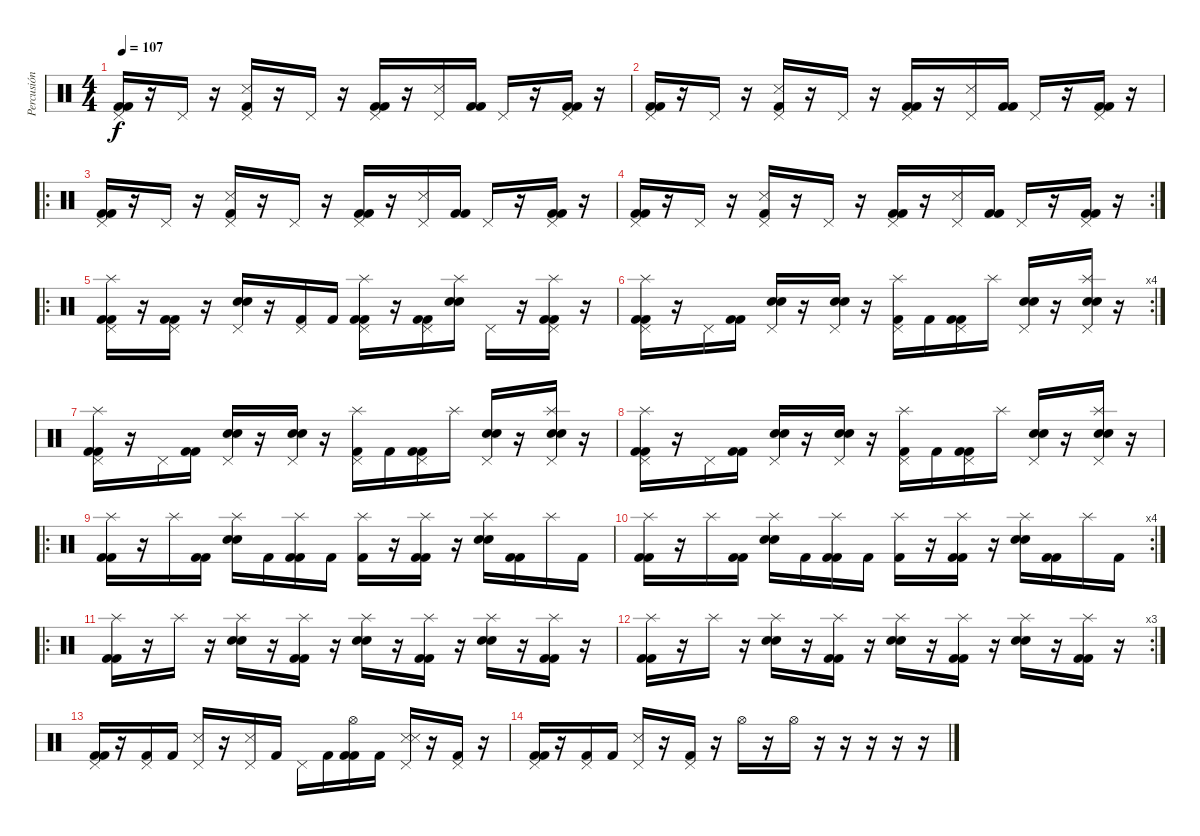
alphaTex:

\track ("Percusión" "Percusión") {instrument percussion}
\staff {score}
\articulation defaults
\ts (4 4)
\tempo 107
\clef neutral
\ks c
("Pedal Hi-Hat (hit)" "Kick (hit) 2" "Kick (hit) 2").16{dy f} r.16 "Pedal Hi-Hat (hit)".16 r.16 ("Pedal Hi-Hat (hit)" "Snare (side stick) 3" "Kick (hit) 2").16 r.16 "Pedal Hi-Hat (hit)".16 r.16 ("Pedal Hi-Hat (hit)" "Kick (hit) 2" "Kick (hit) 2").16 r.16 ("Pedal Hi-Hat (hit)" "Snare (side stick) 3").16 ("Kick (hit) 2" "Kick (hit) 2").16 "Pedal Hi-Hat (hit)".16 r.16 ("Pedal Hi-Hat (hit)" "Kick (hit) 2" "Kick (hit) 2").16 r.16 |
("Pedal Hi-Hat (hit)" "Kick (hit) 2" "Kick (hit) 2").16 r.16 "Pedal Hi-Hat (hit)".16 r.16 ("Pedal Hi-Hat (hit)" "Snare (side stick) 3" "Kick (hit) 2").16 r.16 "Pedal Hi-Hat (hit)".16 r.16 ("Pedal Hi-Hat (hit)" "Kick (hit) 2" "Kick (hit) 2").16 r.16 ("Pedal Hi-Hat (hit)" "Snare (side stick) 3").16 ("Kick (hit) 2" "Kick (hit) 2").16 "Pedal Hi-Hat (hit)".16 r.16 ("Pedal Hi-Hat (hit)" "Kick (hit) 2" "Kick (hit) 2").16 r.16 |
\ro
("Pedal Hi-Hat (hit)" "Kick (hit) 2" "Kick (hit) 2").16 r.16 "Pedal Hi-Hat (hit)".16 r.16 ("Pedal Hi-Hat (hit)" "Snare (side stick) 3" "Kick (hit) 2").16 r.16 "Pedal Hi-Hat (hit)".16 r.16 ("Pedal Hi-Hat (hit)" "Kick (hit) 2" "Kick (hit) 2").16 r.16 ("Pedal Hi-Hat (hit)" "Snare (side stick) 3").16 ("Kick (hit) 2" "Kick (hit) 2").16 "Pedal Hi-Hat (hit)".16 r.16 ("Pedal Hi-Hat (hit)" "Kick (hit) 2" "Kick (hit) 2").16 r.16 |
\rc 2
("Pedal Hi-Hat (hit)" "Kick (hit) 2" "Kick (hit) 2").16 r.16 "Pedal Hi-Hat (hit)".16 r.16 ("Pedal Hi-Hat (hit)" "Snare (side stick) 3" "Kick (hit) 2").16 r.16 "Pedal Hi-Hat (hit)".16 r.16 ("Pedal Hi-Hat (hit)" "Kick (hit) 2" "Kick (hit) 2").16 r.16 ("Pedal Hi-Hat (hit)" "Snare (side stick) 3").16 ("Kick (hit) 2" "Kick (hit) 2").16 "Pedal Hi-Hat (hit)".16 r.16 ("Pedal Hi-Hat (hit)" "Kick (hit) 2" "Kick (hit) 2").16 r.16 |
\ro
("Pedal Hi-Hat (hit)" "Splash (hit)" "Kick (hit) 2" "Kick (hit) 2").16 r.16 ("Pedal Hi-Hat (hit)" "Kick (hit) 2" "Kick (hit) 2").16 r.16 ("Pedal Hi-Hat (hit)" "Electric Snare (hit)" "Electric Snare (hit)").16 r.16 ("Pedal Hi-Hat (hit)" "Kick (hit) 2").16 "Kick (hit) 2".16 ("Pedal Hi-Hat (hit)" "Splash (hit)" "Kick (hit) 2" "Kick (hit) 2").16 r.16 ("Pedal Hi-Hat (hit)" "Kick (hit) 2" "Kick (hit) 2").16 ("Splash (hit)" "Electric Snare (hit)" "Electric Snare (hit)").16 "Pedal Hi-Hat (hit)".16 r.16 ("Pedal Hi-Hat (hit)" "Splash (hit)" "Kick (hit) 2" "Kick (hit) 2").16 r.16 |
\rc 4
("Pedal Hi-Hat (hit)" "Splash (hit)" "Kick (hit) 2" "Kick (hit) 2").16 r.16 "Pedal Hi-Hat (hit)".16 ("Kick (hit) 2" "Kick (hit) 2").16 ("Pedal Hi-Hat (hit)" "Electric Snare (hit)" "Electric Snare (hit)").16 r.16 ("Pedal Hi-Hat (hit)" "Electric Snare (hit)" "Electric Snare (hit)").16 r.16 ("Pedal Hi-Hat (hit)" "Splash (hit)" "Kick (hit) 2").16 "Kick (hit) 2".16 ("Pedal Hi-Hat (hit)" "Kick (hit) 2" "Kick (hit) 2").16 "Splash (hit)".16 ("Pedal Hi-Hat (hit)" "Electric Snare (hit)" "Electric Snare (hit)").16 r.16 ("Pedal Hi-Hat (hit)" "Splash (hit)" "Electric Snare (hit)" "Electric Snare (hit)").16 r.16 |
("Pedal Hi-Hat (hit)" "Splash (hit)" "Kick (hit) 2" "Kick (hit) 2").16 r.16 "Pedal Hi-Hat (hit)".16 ("Kick (hit) 2" "Kick (hit) 2").16 ("Pedal Hi-Hat (hit)" "Electric Snare (hit)" "Electric Snare (hit)").16 r.16 ("Pedal Hi-Hat (hit)" "Electric Snare (hit)" "Electric Snare (hit)").16 r.16 ("Pedal Hi-Hat (hit)" "Splash (hit)" "Kick (hit) 2").16 "Kick (hit) 2".16 ("Pedal Hi-Hat (hit)" "Kick (hit) 2" "Kick (hit) 2").16 "Splash (hit)".16 ("Pedal Hi-Hat (hit)" "Electric Snare (hit)" "Electric Snare (hit)").16 r.16 ("Pedal Hi-Hat (hit)" "Splash (hit)" "Electric Snare (hit)" "Electric Snare (hit)").16 r.16 |
("Pedal Hi-Hat (hit)" "Splash (hit)" "Kick (hit) 2" "Kick (hit) 2").16 r.16 "Pedal Hi-Hat (hit)".16 ("Kick (hit) 2" "Kick (hit) 2").16 ("Pedal Hi-Hat (hit)" "Electric Snare (hit)" "Electric Snare (hit)").16 r.16 ("Pedal Hi-Hat (hit)" "Electric Snare (hit)" "Electric Snare (hit)").16 r.16 ("Pedal Hi-Hat (hit)" "Splash (hit)" "Kick (hit) 2").16 "Kick (hit) 2".16 ("Pedal Hi-Hat (hit)" "Kick (hit) 2" "Kick (hit) 2").16 "Splash (hit)".16 ("Pedal Hi-Hat (hit)" "Electric Snare (hit)" "Electric Snare (hit)").16 r.16 ("Pedal Hi-Hat (hit)" "Splash (hit)" "Electric Snare (hit)" "Electric Snare (hit)").16 r.16 |
\ro
("Splash (hit)" "Kick (hit) 2" "Kick (hit) 2").16 r.16 "Splash (hit)".16 ("Kick (hit) 2" "Kick (hit) 2").16 ("Splash (hit)" "Electric Snare (hit)" "Electric Snare (hit)").16 "Kick (hit) 2".16 ("Splash (hit)" "Kick (hit) 2" "Kick (hit) 2").16 "Kick (hit) 2".16 ("Splash (hit)" "Kick (hit) 2").16 r.16 ("Splash (hit)" "Kick (hit) 2" "Kick (hit) 2").16 r.16 ("Splash (hit)" "Electric Snare (hit)" "Electric Snare (hit)").16 ("Kick (hit) 2" "Kick (hit) 2").16 "Splash (hit)".16 "Kick (hit) 2".16 |
\rc 4
("Splash (hit)" "Kick (hit) 2" "Kick (hit) 2").16 r.16 "Splash (hit)".16 ("Kick (hit) 2" "Kick (hit) 2").16 ("Splash (hit)" "Electric Snare (hit)" "Electric Snare (hit)").16 "Kick (hit) 2".16 ("Splash (hit)" "Kick (hit) 2" "Kick (hit) 2").16 "Kick (hit) 2".16 ("Splash (hit)" "Kick (hit) 2").16 r.16 ("Splash (hit)" "Kick (hit) 2" "Kick (hit) 2").16 r.16 ("Splash (hit)" "Electric Snare (hit)" "Electric Snare (hit)").16 ("Kick (hit) 2" "Kick (hit) 2").16 "Splash (hit)".16 "Kick (hit) 2".16 |
\ro
("Splash (hit)" "Kick (hit) 2" "Kick (hit) 2").16 r.16 "Splash (hit)".16 r.16 ("Splash (hit)" "Electric Snare (hit)" "Electric Snare (hit)").16 r.16 ("Splash (hit)" "Kick (hit) 2" "Kick (hit) 2").16 r.16 ("Splash (hit)" "Electric Snare (hit)" "Electric Snare (hit)").16 r.16 ("Splash (hit)" "Kick (hit) 2" "Kick (hit) 2").16 r.16 ("Splash (hit)" "Electric Snare (hit)" "Electric Snare (hit)").16 r.16 ("Splash (hit)" "Kick (hit) 2" "Kick (hit) 2").16 r.16 |
\rc 3
("Splash (hit)" "Kick (hit) 2" "Kick (hit) 2").16 r.16 "Splash (hit)".16 r.16 ("Splash (hit)" "Electric Snare (hit)" "Electric Snare (hit)").16 r.16 ("Splash (hit)" "Kick (hit) 2" "Kick (hit) 2").16 r.16 ("Splash (hit)" "Electric Snare (hit)" "Electric Snare (hit)").16 r.16 ("Splash (hit)" "Kick (hit) 2" "Kick (hit) 2").16 r.16 ("Splash (hit)" "Electric Snare (hit)" "Electric Snare (hit)").16 r.16 ("Splash (hit)" "Kick (hit) 2" "Kick (hit) 2").16 r.16 |
("Pedal Hi-Hat (hit)" "Kick (hit) 2" "Kick (hit) 2").16 r.16 ("Pedal Hi-Hat (hit)" "Kick (hit) 2").16 "Kick (hit) 2".16 ("Pedal Hi-Hat (hit)" "Snare (side stick) 3").16 r.16 ("Pedal Hi-Hat (hit)" "Snare (side stick) 3").16 "Kick (hit) 2".16 "Pedal Hi-Hat (hit)".16 "Kick (hit) 2".16 ("Hi-Hat (open)" "Kick (hit) 2" "Kick (hit) 2").16 "Kick (hit) 2".16 ("Pedal Hi-Hat (hit)" "Snare (side stick) 3" "Snare (side stick) 3").16 r.16 ("Pedal Hi-Hat (hit)" "Kick (hit) 2").16 r.16 |
("Pedal Hi-Hat (hit)" "Kick (hit) 2" "Kick (hit) 2").16 r.16 ("Pedal Hi-Hat (hit)" "Kick (hit) 2").16 "Kick (hit) 2".16 ("Pedal Hi-Hat (hit)" "Snare (side stick) 3").16 r.16 ("Pedal Hi-Hat (hit)" "Kick (hit) 2").16 r.16 "Hi-Hat (open)".16 r.16 "Hi-Hat (open)".16 r.16 r.16 r.16 r.16 r.16
